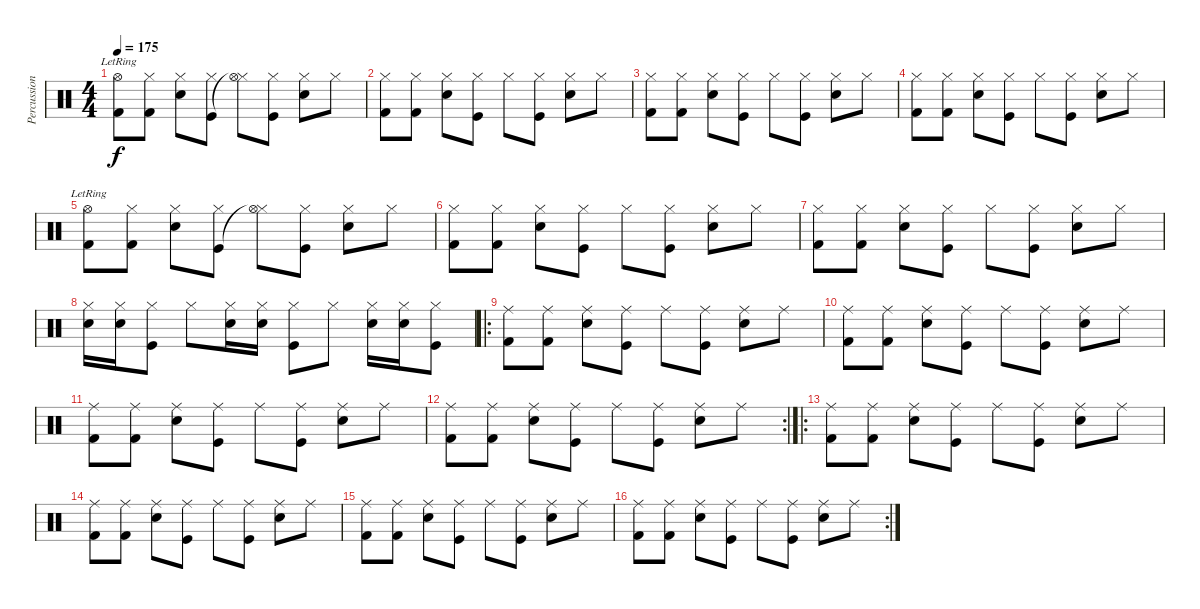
\track ("Percussions" "Percussion") {instrument percussion}
\staff {score}
\articulation defaults
\ts (4 4)
\tempo 175
\clef neutral
\ks c
("Hi-Hat (open)"{lr} "Kick (hit) 2").8{dy f} ("Hi-Hat (closed)" "Kick (hit) 2").8 ("Hi-Hat (closed)" "Snare (hit) 2").8 ("Hi-Hat (closed)" "Kick (hit)").8 ("Hi-Hat (closed)" "Hi-Hat (open)"{t}).8 ("Hi-Hat (closed)" "Kick (hit)").8 ("Hi-Hat (closed)" "Snare (hit) 2").8 "Hi-Hat (closed)".8 |
("Hi-Hat (closed)" "Kick (hit) 2").8 ("Hi-Hat (closed)" "Kick (hit) 2").8 ("Hi-Hat (closed)" "Snare (hit) 2").8 ("Hi-Hat (closed)" "Kick (hit)").8 "Hi-Hat (closed)".8 ("Hi-Hat (closed)" "Kick (hit)").8 ("Hi-Hat (closed)" "Snare (hit) 2").8 "Hi-Hat (closed)".8 |
("Hi-Hat (closed)" "Kick (hit) 2").8 ("Hi-Hat (closed)" "Kick (hit) 2").8 ("Hi-Hat (closed)" "Snare (hit) 2").8 ("Hi-Hat (closed)" "Kick (hit)").8 "Hi-Hat (closed)".8 ("Hi-Hat (closed)" "Kick (hit)").8 ("Hi-Hat (closed)" "Snare (hit) 2").8 "Hi-Hat (closed)".8 |
("Hi-Hat (closed)" "Kick (hit) 2").8 ("Hi-Hat (closed)" "Kick (hit) 2").8 ("Hi-Hat (closed)" "Snare (hit) 2").8 ("Hi-Hat (closed)" "Kick (hit)").8 "Hi-Hat (closed)".8 ("Hi-Hat (closed)" "Kick (hit)").8 ("Hi-Hat (closed)" "Snare (hit) 2").8 "Hi-Hat (closed)".8 |
("Hi-Hat (open)"{lr} "Kick (hit) 2").8 ("Hi-Hat (closed)" "Kick (hit) 2").8 ("Hi-Hat (closed)" "Snare (hit) 2").8 ("Hi-Hat (closed)" "Kick (hit)").8 ("Hi-Hat (closed)" "Hi-Hat (open)"{t}).8 ("Hi-Hat (closed)" "Kick (hit)").8 ("Hi-Hat (closed)" "Snare (hit) 2").8 "Hi-Hat (closed)".8 |
("Hi-Hat (closed)" "Kick (hit) 2").8 ("Hi-Hat (closed)" "Kick (hit) 2").8 ("Hi-Hat (closed)" "Snare (hit) 2").8 ("Hi-Hat (closed)" "Kick (hit)").8 "Hi-Hat (closed)".8 ("Hi-Hat (closed)" "Kick (hit)").8 ("Hi-Hat (closed)" "Snare (hit) 2").8 "Hi-Hat (closed)".8 |
("Hi-Hat (closed)" "Kick (hit) 2").8 ("Hi-Hat (closed)" "Kick (hit) 2").8 ("Hi-Hat (closed)" "Snare (hit) 2").8 ("Hi-Hat (closed)" "Kick (hit)").8 "Hi-Hat (closed)".8 ("Hi-Hat (closed)" "Kick (hit)").8 ("Hi-Hat (closed)" "Snare (hit) 2").8 "Hi-Hat (closed)".8 |
("Hi-Hat (closed)" "Snare (hit) 2").16 ("Hi-Hat (closed)" "Snare (hit) 2").16 ("Hi-Hat (closed)" "Kick (hit)").8 "Hi-Hat (closed)".8 ("Hi-Hat (closed)" "Snare (hit) 2").16 ("Hi-Hat (closed)" "Snare (hit) 2").16 ("Hi-Hat (closed)" "Kick (hit)").8 "Hi-Hat (closed)".8 ("Hi-Hat (closed)" "Snare (hit) 2").16 ("Hi-Hat (closed)" "Snare (hit) 2").16 ("Hi-Hat (closed)" "Kick (hit)").8 |
\ro
("Ride (middle)" "Kick (hit) 2").8 ("Ride (middle)" "Kick (hit) 2").8 ("Ride (middle)" "Snare (hit) 2").8 ("Ride (middle)" "Kick (hit)").8 "Ride (middle)".8 ("Ride (middle)" "Kick (hit)").8 ("Ride (middle)" "Snare (hit) 2").8 "Ride (middle)".8 |
("Ride (middle)" "Kick (hit) 2").8 ("Ride (middle)" "Kick (hit) 2").8 ("Ride (middle)" "Snare (hit) 2").8 ("Ride (middle)" "Kick (hit)").8 "Ride (middle)".8 ("Ride (middle)" "Kick (hit)").8 ("Ride (middle)" "Snare (hit) 2").8 "Ride (middle)".8 |
("Ride (middle)" "Kick (hit) 2").8 ("Ride (middle)" "Kick (hit) 2").8 ("Ride (middle)" "Snare (hit) 2").8 ("Ride (middle)" "Kick (hit)").8 "Ride (middle)".8 ("Ride (middle)" "Kick (hit)").8 ("Ride (middle)" "Snare (hit) 2").8 "Ride (middle)".8 |
\rc 2
("Ride (middle)" "Kick (hit) 2").8 ("Ride (middle)" "Kick (hit) 2").8 ("Ride (middle)" "Snare (hit) 2").8 ("Ride (middle)" "Kick (hit)").8 "Ride (middle)".8 ("Ride (middle)" "Kick (hit)").8 ("Ride (middle)" "Snare (hit) 2").8 "Ride (middle)".8 |
\ro
("Ride (middle)" "Kick (hit) 2").8 ("Ride (middle)" "Kick (hit) 2").8 ("Ride (middle)" "Snare (hit) 2").8 ("Ride (middle)" "Kick (hit)").8 "Ride (middle)".8 ("Ride (middle)" "Kick (hit)").8 ("Ride (middle)" "Snare (hit) 2").8 "Ride (middle)".8 |
("Ride (middle)" "Kick (hit) 2").8 ("Ride (middle)" "Kick (hit) 2").8 ("Ride (middle)" "Snare (hit) 2").8 ("Ride (middle)" "Kick (hit)").8 "Ride (middle)".8 ("Ride (middle)" "Kick (hit)").8 ("Ride (middle)" "Snare (hit) 2").8 "Ride (middle)".8 |
("Ride (middle)" "Kick (hit) 2").8 ("Ride (middle)" "Kick (hit) 2").8 ("Ride (middle)" "Snare (hit) 2").8 ("Ride (middle)" "Kick (hit)").8 "Ride (middle)".8 ("Ride (middle)" "Kick (hit)").8 ("Ride (middle)" "Snare (hit) 2").8 "Ride (middle)".8 |
\rc 2
("Ride (middle)" "Kick (hit) 2").8 ("Ride (middle)" "Kick (hit) 2").8 ("Ride (middle)" "Snare (hit) 2").8 ("Ride (middle)" "Kick (hit)").8 "Ride (middle)".8 ("Ride (middle)" "Kick (hit)").8 ("Ride (middle)" "Snare (hit) 2").8 "Ride (middle)".8
